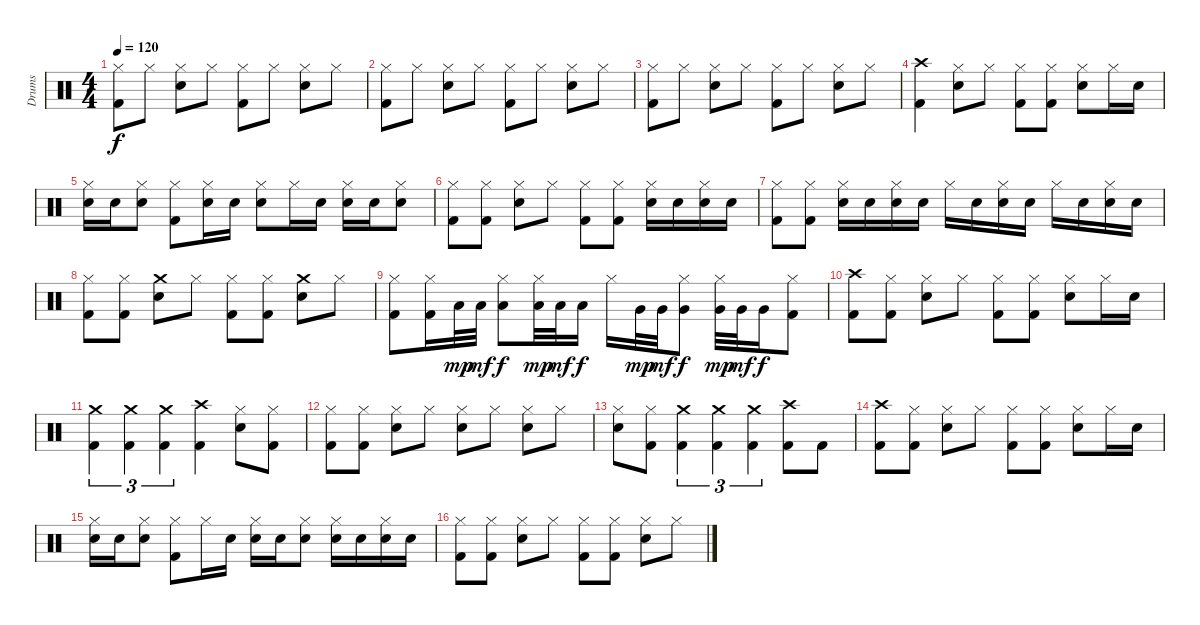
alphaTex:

\track ("Drums" "Drums") {instrument percussion}
\staff {score}
\articulation defaults
\ts (4 4)
\tempo 120
\clef neutral
\ks c
("Hi-Hat (closed)" "Kick (hit) 2").8{dy f} "Hi-Hat (closed)".8 ("Hi-Hat (closed)" "Electric Snare (hit)").8 "Hi-Hat (closed)".8 ("Hi-Hat (closed)" "Kick (hit) 2").8 "Hi-Hat (closed)".8 ("Hi-Hat (closed)" "Electric Snare (hit)").8 "Hi-Hat (closed)".8 |
("Hi-Hat (closed)" "Kick (hit) 2").8 "Hi-Hat (closed)".8 ("Hi-Hat (closed)" "Electric Snare (hit)").8 "Hi-Hat (closed)".8 ("Hi-Hat (closed)" "Kick (hit) 2").8 "Hi-Hat (closed)".8 ("Hi-Hat (closed)" "Electric Snare (hit)").8 "Hi-Hat (closed)".8 |
("Hi-Hat (closed)" "Kick (hit) 2").8 "Hi-Hat (closed)".8 ("Hi-Hat (closed)" "Electric Snare (hit)").8 "Hi-Hat (closed)".8 ("Hi-Hat (closed)" "Kick (hit) 2").8 "Hi-Hat (closed)".8 ("Hi-Hat (closed)" "Electric Snare (hit)").8 "Hi-Hat (closed)".8 |
("Crash high (hit)" "Kick (hit) 2").4 ("Hi-Hat (closed)" "Electric Snare (hit)").8 "Hi-Hat (closed)".8 ("Hi-Hat (closed)" "Kick (hit) 2").8 ("Hi-Hat (closed)" "Kick (hit) 2").8 ("Hi-Hat (closed)" "Electric Snare (hit)").8 "Hi-Hat (closed)".16 "Electric Snare (hit)".16 |
("Hi-Hat (closed)" "Electric Snare (hit)").16 "Electric Snare (hit)".16 ("Hi-Hat (closed)" "Electric Snare (hit)").8 ("Hi-Hat (closed)" "Kick (hit) 2").8 ("Hi-Hat (closed)" "Electric Snare (hit)").16 "Electric Snare (hit)".16 ("Hi-Hat (closed)" "Electric Snare (hit)").8 "Hi-Hat (closed)".16 "Electric Snare (hit)".16 ("Hi-Hat (closed)" "Electric Snare (hit)").16 "Electric Snare (hit)".16 ("Hi-Hat (closed)" "Electric Snare (hit)").8 |
("Hi-Hat (closed)" "Kick (hit) 2").8 ("Hi-Hat (closed)" "Kick (hit) 2").8 ("Hi-Hat (closed)" "Electric Snare (hit)").8 "Hi-Hat (closed)".8 ("Hi-Hat (closed)" "Kick (hit) 2").8 ("Hi-Hat (closed)" "Kick (hit) 2").8 ("Hi-Hat (closed)" "Electric Snare (hit)").16 "Electric Snare (hit)".16 ("Hi-Hat (closed)" "Electric Snare (hit)").16 "Electric Snare (hit)".16 |
("Hi-Hat (closed)" "Kick (hit) 2").8 ("Hi-Hat (closed)" "Kick (hit) 2").8 ("Hi-Hat (closed)" "Electric Snare (hit)").16 "Electric Snare (hit)".16 ("Hi-Hat (closed)" "Electric Snare (hit)").16 "Electric Snare (hit)".16 "Hi-Hat (closed)".16 "Electric Snare (hit)".16 ("Hi-Hat (closed)" "Electric Snare (hit)").16 "Electric Snare (hit)".16 "Hi-Hat (closed)".16 "Electric Snare (hit)".16 ("Hi-Hat (closed)" "Electric Snare (hit)").16 "Electric Snare (hit)".16 |
("Hi-Hat (closed)" "Kick (hit) 2").8 ("Hi-Hat (closed)" "Kick (hit) 2").8 ("Crash medium (hit)" "Electric Snare (hit)").8 "Hi-Hat (closed)".8 ("Hi-Hat (closed)" "Kick (hit) 2").8 ("Hi-Hat (closed)" "Kick (hit) 2").8 ("Crash medium (hit)" "Electric Snare (hit)").8 "Hi-Hat (closed)".8 |
("Hi-Hat (closed)" "Kick (hit) 2").8 ("Hi-Hat (closed)" "Kick (hit) 2").16 "Low Tom (hit)".32{dy mp} "Low Tom (hit)".32{dy mf} ("Hi-Hat (closed)" "Low Tom (hit)").8{dy f} ("Hi-Hat (closed)" "Low Tom (hit)").32{dy mp} "Low Tom (hit)".32{dy mf} "Low Tom (hit)".16{dy f} "Hi-Hat (closed)".16 "Very Low Tom (hit)".32{dy mp} "Very Low Tom (hit)".32{dy mf} ("Hi-Hat (closed)" "Very Low Tom (hit)").8{dy f} ("Hi-Hat (closed)" "Very Low Tom (hit)").32{dy mp} "Very Low Tom (hit)".32{dy mf} "Very Low Tom (hit)".16{dy f} ("Hi-Hat (closed)" "Kick (hit) 2").8 |
("Crash high (hit)" "Kick (hit) 2").8 ("Hi-Hat (closed)" "Kick (hit) 2").8 ("Hi-Hat (closed)" "Electric Snare (hit)").8 "Hi-Hat (closed)".8 ("Hi-Hat (closed)" "Kick (hit) 2").8 ("Hi-Hat (closed)" "Kick (hit) 2").8 ("Hi-Hat (closed)" "Electric Snare (hit)").8 "Hi-Hat (closed)".16 "Electric Snare (hit)".16 |
("Crash medium (hit)" "Kick (hit) 2").4{tu (3 2)} ("Crash medium (hit)" "Kick (hit) 2").4{tu (3 2)} ("Crash medium (hit)" "Kick (hit) 2").4{tu (3 2)} ("Crash high (hit)" "Kick (hit) 2").4 ("Hi-Hat (closed)" "Electric Snare (hit)").8 ("Hi-Hat (closed)" "Kick (hit) 2").8 |
("Hi-Hat (closed)" "Kick (hit) 2").8 ("Hi-Hat (closed)" "Kick (hit) 2").8 ("Hi-Hat (closed)" "Electric Snare (hit)").8 "Hi-Hat (closed)".8 ("Hi-Hat (closed)" "Electric Snare (hit)").8 "Hi-Hat (closed)".8 ("Hi-Hat (closed)" "Electric Snare (hit)").8 "Hi-Hat (closed)".8 |
("Hi-Hat (closed)" "Electric Snare (hit)").8 ("Hi-Hat (closed)" "Kick (hit) 2").8 ("Crash medium (hit)" "Kick (hit) 2").4{tu (3 2)} ("Crash medium (hit)" "Kick (hit) 2").4{tu (3 2)} ("Crash medium (hit)" "Kick (hit) 2").4{tu (3 2)} ("Crash high (hit)" "Kick (hit) 2").8 "Kick (hit) 2".8 |
("Crash high (hit)" "Kick (hit) 2").8 ("Hi-Hat (closed)" "Kick (hit) 2").8 ("Hi-Hat (closed)" "Electric Snare (hit)").8 "Hi-Hat (closed)".8 ("Hi-Hat (closed)" "Kick (hit) 2").8 ("Hi-Hat (closed)" "Kick (hit) 2").8 ("Hi-Hat (closed)" "Electric Snare (hit)").8 "Hi-Hat (closed)".16 "Electric Snare (hit)".16 |
("Hi-Hat (closed)" "Electric Snare (hit)").16 "Electric Snare (hit)".16 ("Hi-Hat (closed)" "Electric Snare (hit)").8 ("Hi-Hat (closed)" "Kick (hit) 2").8 "Hi-Hat (closed)".16 "Electric Snare (hit)".16 ("Hi-Hat (closed)" "Electric Snare (hit)").16 "Electric Snare (hit)".16 ("Hi-Hat (closed)" "Electric Snare (hit)").8 ("Hi-Hat (closed)" "Electric Snare (hit)").16 "Electric Snare (hit)".16 ("Hi-Hat (closed)" "Electric Snare (hit)").16 "Electric Snare (hit)".16 |
("Hi-Hat (closed)" "Kick (hit) 2").8 ("Hi-Hat (closed)" "Kick (hit) 2").8 ("Hi-Hat (closed)" "Electric Snare (hit)").8 "Hi-Hat (closed)".8 ("Hi-Hat (closed)" "Kick (hit) 2").8 ("Hi-Hat (closed)" "Kick (hit) 2").8 ("Hi-Hat (closed)" "Electric Snare (hit)").8 "Hi-Hat (closed)".8
